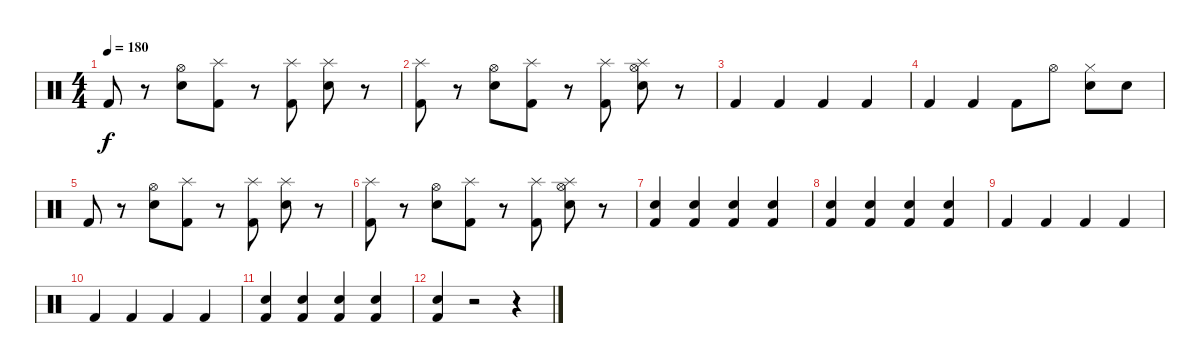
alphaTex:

\track "" {instrument percussion}
\staff {score}
\articulation defaults
\ts (4 4)
\tempo 180
\clef neutral
\ks c "Kick (hit) 2".8{dy f}
r.8 ("Hi-Hat (open)" "Electric Snare (hit)").8 ("Splash (hit)" "Kick (hit) 2").8 r.8 ("Splash (hit)" "Kick (hit) 2").8 ("Splash (hit)" "Electric Snare (hit)").8 r.8 |
("Splash (hit)" "Kick (hit) 2").8 r.8 ("Hi-Hat (open)" "Electric Snare (hit)").8 ("Splash (hit)" "Kick (hit) 2").8 r.8 ("Splash (hit)" "Kick (hit) 2").8 ("Hi-Hat (open)" "Splash (hit)" "Electric Snare (hit)").8 r.8 |
"Kick (hit) 2".4 "Kick (hit) 2".4 "Kick (hit) 2".4 "Kick (hit) 2".4 |
"Kick (hit) 2".4 "Kick (hit) 2".4 "Kick (hit) 2".8 "Hi-Hat (open)".8 ("Hi-Hat (closed)" "Electric Snare (hit)").8 "Electric Snare (hit)".8 |
"Kick (hit) 2".8 r.8 ("Hi-Hat (open)" "Electric Snare (hit)").8 ("Splash (hit)" "Kick (hit) 2").8 r.8 ("Splash (hit)" "Kick (hit) 2").8 ("Splash (hit)" "Electric Snare (hit)").8 r.8 |
("Splash (hit)" "Kick (hit) 2").8 r.8 ("Hi-Hat (open)" "Electric Snare (hit)").8 ("Splash (hit)" "Kick (hit) 2").8 r.8 ("Splash (hit)" "Kick (hit) 2").8 ("Hi-Hat (open)" "Splash (hit)" "Electric Snare (hit)").8 r.8 |
("Kick (hit) 2" "Electric Snare (hit)").4 ("Kick (hit) 2" "Electric Snare (hit)").4 ("Kick (hit) 2" "Electric Snare (hit)").4 ("Kick (hit) 2" "Electric Snare (hit)").4 |
("Kick (hit) 2" "Electric Snare (hit)").4 ("Kick (hit) 2" "Electric Snare (hit)").4 ("Kick (hit) 2" "Electric Snare (hit)").4 ("Kick (hit) 2" "Electric Snare (hit)").4 |
"Kick (hit) 2".4 "Kick (hit) 2".4 "Kick (hit) 2".4 "Kick (hit) 2".4 |
"Kick (hit) 2".4 "Kick (hit) 2".4 "Kick (hit) 2".4 "Kick (hit) 2".4 |
("Kick (hit) 2" "Electric Snare (hit)").4 ("Kick (hit) 2" "Electric Snare (hit)").4 ("Kick (hit) 2" "Electric Snare (hit)").4 ("Kick (hit) 2" "Electric Snare (hit)").4 |
("Kick (hit) 2" "Electric Snare (hit)").4 r.2 r.4
